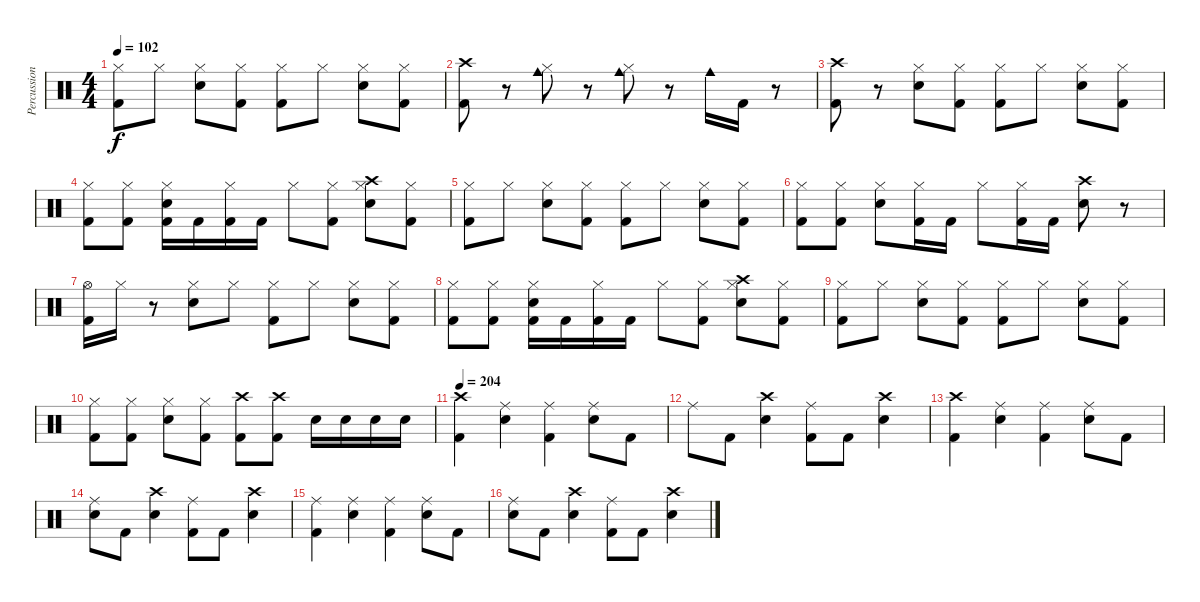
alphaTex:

\track ("Percussion" "Percussion") {instrument percussion}
\staff {score}
\articulation defaults
\ts (4 4)
\tempo 102
\clef neutral
\ks c
("Hi-Hat (closed)" "Kick (hit) 2").8{dy f} "Hi-Hat (closed)".8 ("Hi-Hat (closed)" "Snare (hit) 2").8 ("Hi-Hat (closed)" "Kick (hit) 2").8 ("Hi-Hat (closed)" "Kick (hit) 2").8 "Hi-Hat (closed)".8 ("Hi-Hat (closed)" "Snare (hit) 2").8 ("Hi-Hat (closed)" "Kick (hit) 2").8 |
("Kick (hit) 2" "Crash high (hit)").8 r.8 ("Hi-Hat (closed)" "Cowbell medium (hit)").8 r.8 ("Hi-Hat (closed)" "Cowbell medium (hit)").8 r.8 "Cowbell medium (hit)".16 "Kick (hit) 2".16 r.8 |
("Kick (hit) 2" "Crash high (hit)").8 r.8 ("Hi-Hat (closed)" "Snare (hit) 2").8 ("Hi-Hat (closed)" "Kick (hit) 2").8 ("Hi-Hat (closed)" "Kick (hit) 2").8 "Hi-Hat (closed)".8 ("Hi-Hat (closed)" "Snare (hit) 2").8 ("Hi-Hat (closed)" "Kick (hit) 2").8 |
("Hi-Hat (closed)" "Kick (hit) 2").8 ("Hi-Hat (closed)" "Kick (hit) 2").8 ("Hi-Hat (closed)" "Snare (hit) 2" "Kick (hit) 2").16 "Kick (hit) 2".16 ("Hi-Hat (closed)" "Kick (hit) 2").16 "Kick (hit) 2".16 "Hi-Hat (closed)".8 ("Hi-Hat (closed)" "Kick (hit) 2").8 ("Hi-Hat (closed)" "Snare (hit) 2" "Crash high (hit)").8 ("Hi-Hat (closed)" "Kick (hit) 2").8 |
("Hi-Hat (closed)" "Kick (hit) 2").8 "Hi-Hat (closed)".8 ("Hi-Hat (closed)" "Snare (hit) 2").8 ("Hi-Hat (closed)" "Kick (hit) 2").8 ("Hi-Hat (closed)" "Kick (hit) 2").8 "Hi-Hat (closed)".8 ("Hi-Hat (closed)" "Snare (hit) 2").8 ("Hi-Hat (closed)" "Kick (hit) 2").8 |
("Hi-Hat (closed)" "Kick (hit) 2").8 ("Hi-Hat (closed)" "Kick (hit) 2").8 ("Hi-Hat (closed)" "Snare (hit) 2").8 ("Hi-Hat (closed)" "Kick (hit) 2").16 "Kick (hit) 2".16 "Hi-Hat (closed)".8 ("Hi-Hat (closed)" "Kick (hit) 2").16 "Kick (hit) 2".16 ("Snare (hit) 2" "Crash high (hit)").8 r.8 |
("Hi-Hat (open)" "Kick (hit) 2").16 "Hi-Hat (closed)".16 r.8 ("Hi-Hat (closed)" "Snare (hit) 2").8 "Hi-Hat (closed)".8 ("Hi-Hat (closed)" "Kick (hit) 2").8 "Hi-Hat (closed)".8 ("Hi-Hat (closed)" "Snare (hit) 2").8 ("Hi-Hat (closed)" "Kick (hit) 2").8 |
("Hi-Hat (closed)" "Kick (hit) 2").8 ("Hi-Hat (closed)" "Kick (hit) 2").8 ("Hi-Hat (closed)" "Snare (hit) 2" "Kick (hit) 2").16 "Kick (hit) 2".16 ("Hi-Hat (closed)" "Kick (hit) 2").16 "Kick (hit) 2".16 "Hi-Hat (closed)".8 ("Hi-Hat (closed)" "Kick (hit) 2").8 ("Hi-Hat (closed)" "Snare (hit) 2" "Crash high (hit)").8 ("Hi-Hat (closed)" "Kick (hit) 2").8 |
("Hi-Hat (closed)" "Kick (hit) 2").8 "Hi-Hat (closed)".8 ("Hi-Hat (closed)" "Snare (hit) 2").8 ("Hi-Hat (closed)" "Kick (hit) 2").8 ("Hi-Hat (closed)" "Kick (hit) 2").8 "Hi-Hat (closed)".8 ("Hi-Hat (closed)" "Snare (hit) 2").8 ("Hi-Hat (closed)" "Kick (hit) 2").8 |
("Hi-Hat (closed)" "Kick (hit) 2").8 ("Hi-Hat (closed)" "Kick (hit) 2").8 ("Hi-Hat (closed)" "Snare (hit) 2").8 ("Hi-Hat (closed)" "Kick (hit) 2").8 ("Kick (hit) 2" "Crash high (hit)").8 ("Kick (hit) 2" "Crash high (hit)").8 "Snare (hit) 2".16 "Snare (hit) 2".16 "Snare (hit) 2".16 "Snare (hit) 2".16 |
\tempo 204
("Kick (hit) 2" "Crash high (hit)").4 ("Snare (hit) 2" "Ride (middle)").4 ("Kick (hit) 2" "Ride (middle)").4 ("Snare (hit) 2" "Ride (middle)").8 "Kick (hit) 2".8 |
"Ride (middle)".8 "Kick (hit) 2".8 ("Snare (hit) 2" "Crash high (hit)").4 ("Kick (hit) 2" "Ride (middle)").8 "Kick (hit) 2".8 ("Snare (hit) 2" "Crash high (hit)").4 |
("Kick (hit) 2" "Crash high (hit)").4 ("Snare (hit) 2" "Ride (middle)").4 ("Kick (hit) 2" "Ride (middle)").4 ("Snare (hit) 2" "Ride (middle)").8 "Kick (hit) 2".8 |
("Snare (hit) 2" "Ride (middle)").8 "Kick (hit) 2".8 ("Snare (hit) 2" "Crash high (hit)").4 ("Kick (hit) 2" "Ride (middle)").8 "Kick (hit) 2".8 ("Snare (hit) 2" "Crash high (hit)").4 |
("Kick (hit) 2" "Ride (middle)").4 ("Snare (hit) 2" "Ride (middle)").4 ("Kick (hit) 2" "Ride (middle)").4 ("Snare (hit) 2" "Ride (middle)").8 "Kick (hit) 2".8 |
("Snare (hit) 2" "Ride (middle)").8 "Kick (hit) 2".8 ("Snare (hit) 2" "Crash high (hit)").4 ("Kick (hit) 2" "Ride (middle)").8 "Kick (hit) 2".8 ("Snare (hit) 2" "Crash high (hit)").4
